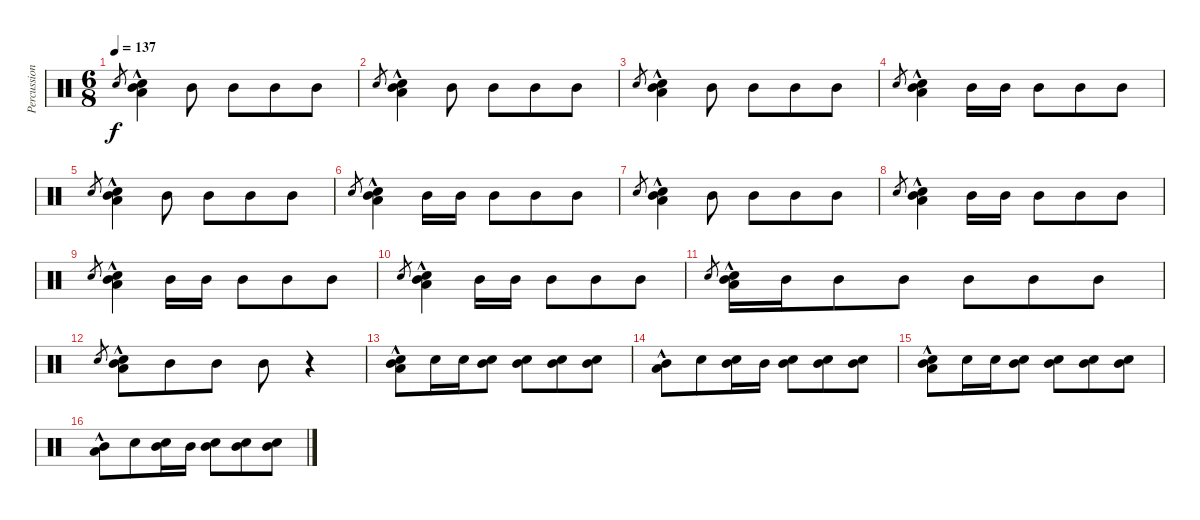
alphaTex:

\track ("Percussion" "Percussion") {instrument percussion}
\staff {score}
\articulation defaults
\ts (6 8)
\tempo 137
\clef neutral
\ks c "Snare (hit) 2".8{gr dy f}
("Snare (hit) 2" "Mid Tom (hit)" "Low Floor Tom (hit)"{hac}).4 "Mid Tom (hit)".8 "Mid Tom (hit)".8 "Mid Tom (hit)".8 "Mid Tom (hit)".8 |
"Snare (hit) 2".8{gr} ("Snare (hit) 2" "Mid Tom (hit)" "Low Floor Tom (hit)"{hac}).4 "Mid Tom (hit)".8 "Mid Tom (hit)".8 "Mid Tom (hit)".8 "Mid Tom (hit)".8 |
"Snare (hit) 2".8{gr} ("Snare (hit) 2" "Mid Tom (hit)" "Low Floor Tom (hit)"{hac}).4 "Mid Tom (hit)".8 "Mid Tom (hit)".8 "Mid Tom (hit)".8 "Mid Tom (hit)".8 |
"Snare (hit) 2".8{gr} ("Snare (hit) 2" "Mid Tom (hit)" "Low Floor Tom (hit)"{hac}).4 "Mid Tom (hit)".16 "Mid Tom (hit)".16 "Mid Tom (hit)".8 "Mid Tom (hit)".8 "Mid Tom (hit)".8 |
"Snare (hit) 2".8{gr} ("Snare (hit) 2" "Mid Tom (hit)" "Low Floor Tom (hit)"{hac}).4 "Mid Tom (hit)".8 "Mid Tom (hit)".8 "Mid Tom (hit)".8 "Mid Tom (hit)".8 |
"Snare (hit) 2".8{gr} ("Snare (hit) 2" "Mid Tom (hit)" "Low Floor Tom (hit)"{hac}).4 "Mid Tom (hit)".16 "Mid Tom (hit)".16 "Mid Tom (hit)".8 "Mid Tom (hit)".8 "Mid Tom (hit)".8 |
"Snare (hit) 2".8{gr} ("Snare (hit) 2" "Mid Tom (hit)" "Low Floor Tom (hit)"{hac}).4 "Mid Tom (hit)".8 "Mid Tom (hit)".8 "Mid Tom (hit)".8 "Mid Tom (hit)".8 |
"Snare (hit) 2".8{gr} ("Snare (hit) 2" "Mid Tom (hit)" "Low Floor Tom (hit)"{hac}).4 "Mid Tom (hit)".16 "Mid Tom (hit)".16 "Mid Tom (hit)".8 "Mid Tom (hit)".8 "Mid Tom (hit)".8 |
"Snare (hit) 2".8{gr} ("Snare (hit) 2" "Mid Tom (hit)" "Low Floor Tom (hit)"{hac}).4 "Mid Tom (hit)".16 "Mid Tom (hit)".16 "Mid Tom (hit)".8 "Mid Tom (hit)".8 "Mid Tom (hit)".8 |
"Snare (hit) 2".8{gr} ("Snare (hit) 2" "Mid Tom (hit)" "Low Floor Tom (hit)"{hac}).4 "Mid Tom (hit)".16 "Mid Tom (hit)".16 "Mid Tom (hit)".8 "Mid Tom (hit)".8 "Mid Tom (hit)".8 |
"Snare (hit) 2".8{gr} ("Snare (hit) 2" "Mid Tom (hit)" "Low Floor Tom (hit)"{hac}).16 "Mid Tom (hit)".16 "Mid Tom (hit)".8 "Mid Tom (hit)".8 "Mid Tom (hit)".8 "Mid Tom (hit)".8 "Mid Tom (hit)".8 |
"Snare (hit) 2".8{gr} ("Snare (hit) 2" "Mid Tom (hit)" "Low Floor Tom (hit)"{hac}).8 "Mid Tom (hit)".8 "Mid Tom (hit)".8 "Mid Tom (hit)".8 r.4 |
("Snare (hit) 2" "Mid Tom (hit)" "Low Floor Tom (hit)"{hac}).8 "Snare (hit) 2".16 "Snare (hit) 2".16 ("Snare (hit) 2" "Mid Tom (hit)").8 ("Snare (hit) 2" "Mid Tom (hit)").8 ("Snare (hit) 2" "Mid Tom (hit)").8 ("Snare (hit) 2" "Mid Tom (hit)").8 |
("Mid Tom (hit)" "Low Floor Tom (hit)"{hac}).8 "Snare (hit) 2".8 ("Snare (hit) 2" "Mid Tom (hit)").16 "Mid Tom (hit)".16 ("Snare (hit) 2" "Mid Tom (hit)").8 ("Snare (hit) 2" "Mid Tom (hit)").8 ("Snare (hit) 2" "Mid Tom (hit)").8 |
("Snare (hit) 2" "Mid Tom (hit)" "Low Floor Tom (hit)"{hac}).8 "Snare (hit) 2".16 "Snare (hit) 2".16 ("Snare (hit) 2" "Mid Tom (hit)").8 ("Snare (hit) 2" "Mid Tom (hit)").8 ("Snare (hit) 2" "Mid Tom (hit)").8 ("Snare (hit) 2" "Mid Tom (hit)").8 |
("Mid Tom (hit)" "Low Floor Tom (hit)"{hac}).8 "Snare (hit) 2".8 ("Snare (hit) 2" "Mid Tom (hit)").16 "Mid Tom (hit)".16 ("Snare (hit) 2" "Mid Tom (hit)").8 ("Snare (hit) 2" "Mid Tom (hit)").8 ("Snare (hit) 2" "Mid Tom (hit)").8
